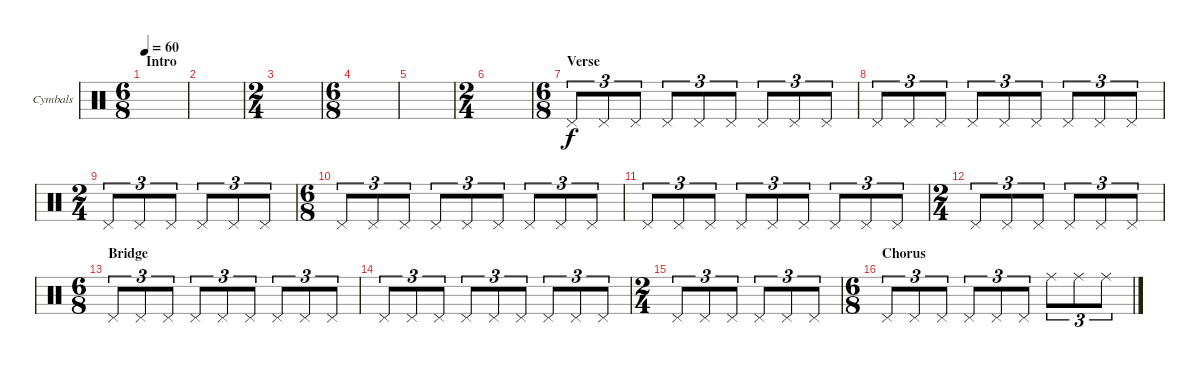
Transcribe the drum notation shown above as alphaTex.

\defaultSystemsLayout 4
\bracketExtendMode groupsimilarinstruments
\firstSystemTrackNameOrientation horizontal
\otherSystemsTrackNameOrientation horizontal
\track ("Cymbals" "Cymbals") {instrument percussion}
\staff {score}
\articulation defaults
\ts (6 8)
\section ("" "Intro")
\tempo 60
\clef neutral
\scale
0.391473
\ks c
|
\scale
0.217054 |
\ts (2 4)
\scale
0.391473 |
\ts (6 8)
\scale
0.391473 |
\scale
0.217054 |
\ts (2 4)
\scale
0.391473 |
\ts (6 8)
\section ("" "Verse")
\scale
0.391473 "Pedal Hi-Hat (hit)".8{tu (3 2)} "Pedal Hi-Hat (hit)".8{tu (3 2)} "Pedal Hi-Hat (hit)".8{tu (3 2)} "Pedal Hi-Hat (hit)".8{tu (3 2)} "Pedal Hi-Hat (hit)".8{tu (3 2)} "Pedal Hi-Hat (hit)".8{tu (3 2)} "Pedal Hi-Hat (hit)".8{tu (3 2)} "Pedal Hi-Hat (hit)".8{tu (3 2)} "Pedal Hi-Hat (hit)".8{tu (3 2)} |
\scale
0.217054 "Pedal Hi-Hat (hit)".8{tu (3 2)} "Pedal Hi-Hat (hit)".8{tu (3 2)} "Pedal Hi-Hat (hit)".8{tu (3 2)} "Pedal Hi-Hat (hit)".8{tu (3 2)} "Pedal Hi-Hat (hit)".8{tu (3 2)} "Pedal Hi-Hat (hit)".8{tu (3 2)} "Pedal Hi-Hat (hit)".8{tu (3 2)} "Pedal Hi-Hat (hit)".8{tu (3 2)} "Pedal Hi-Hat (hit)".8{tu (3 2)} |
\ts (2 4)
\scale
0.391473 "Pedal Hi-Hat (hit)".8{tu (3 2)} "Pedal Hi-Hat (hit)".8{tu (3 2)} "Pedal Hi-Hat (hit)".8{tu (3 2)} "Pedal Hi-Hat (hit)".8{tu (3 2)} "Pedal Hi-Hat (hit)".8{tu (3 2)} "Pedal Hi-Hat (hit)".8{tu (3 2)} |
\ts (6 8)
\scale
0.391473 "Pedal Hi-Hat (hit)".8{tu (3 2)} "Pedal Hi-Hat (hit)".8{tu (3 2)} "Pedal Hi-Hat (hit)".8{tu (3 2)} "Pedal Hi-Hat (hit)".8{tu (3 2)} "Pedal Hi-Hat (hit)".8{tu (3 2)} "Pedal Hi-Hat (hit)".8{tu (3 2)} "Pedal Hi-Hat (hit)".8{tu (3 2)} "Pedal Hi-Hat (hit)".8{tu (3 2)} "Pedal Hi-Hat (hit)".8{tu (3 2)} |
\scale
0.217054 "Pedal Hi-Hat (hit)".8{tu (3 2)} "Pedal Hi-Hat (hit)".8{tu (3 2)} "Pedal Hi-Hat (hit)".8{tu (3 2)} "Pedal Hi-Hat (hit)".8{tu (3 2)} "Pedal Hi-Hat (hit)".8{tu (3 2)} "Pedal Hi-Hat (hit)".8{tu (3 2)} "Pedal Hi-Hat (hit)".8{tu (3 2)} "Pedal Hi-Hat (hit)".8{tu (3 2)} "Pedal Hi-Hat (hit)".8{tu (3 2)} |
\ts (2 4)
\scale
0.391473 "Pedal Hi-Hat (hit)".8{tu (3 2)} "Pedal Hi-Hat (hit)".8{tu (3 2)} "Pedal Hi-Hat (hit)".8{tu (3 2)} "Pedal Hi-Hat (hit)".8{tu (3 2)} "Pedal Hi-Hat (hit)".8{tu (3 2)} "Pedal Hi-Hat (hit)".8{tu (3 2)} |
\ts (6 8)
\section ("" "Bridge")
\scale
0.391473 "Pedal Hi-Hat (hit)".8{tu (3 2)} "Pedal Hi-Hat (hit)".8{tu (3 2)} "Pedal Hi-Hat (hit)".8{tu (3 2)} "Pedal Hi-Hat (hit)".8{tu (3 2)} "Pedal Hi-Hat (hit)".8{tu (3 2)} "Pedal Hi-Hat (hit)".8{tu (3 2)} "Pedal Hi-Hat (hit)".8{tu (3 2)} "Pedal Hi-Hat (hit)".8{tu (3 2)} "Pedal Hi-Hat (hit)".8{tu (3 2)} |
\scale
0.217054 "Pedal Hi-Hat (hit)".8{tu (3 2)} "Pedal Hi-Hat (hit)".8{tu (3 2)} "Pedal Hi-Hat (hit)".8{tu (3 2)} "Pedal Hi-Hat (hit)".8{tu (3 2)} "Pedal Hi-Hat (hit)".8{tu (3 2)} "Pedal Hi-Hat (hit)".8{tu (3 2)} "Pedal Hi-Hat (hit)".8{tu (3 2)} "Pedal Hi-Hat (hit)".8{tu (3 2)} "Pedal Hi-Hat (hit)".8{tu (3 2)} |
\ts (2 4)
\scale
0.391473 "Pedal Hi-Hat (hit)".8{tu (3 2)} "Pedal Hi-Hat (hit)".8{tu (3 2)} "Pedal Hi-Hat (hit)".8{tu (3 2)} "Pedal Hi-Hat (hit)".8{tu (3 2)} "Pedal Hi-Hat (hit)".8{tu (3 2)} "Pedal Hi-Hat (hit)".8{tu (3 2)} |
\ts (6 8)
\section ("" "Chorus")
\scale
0.474178 "Pedal Hi-Hat (hit)".8{tu (3 2)} "Pedal Hi-Hat (hit)".8{tu (3 2)} "Pedal Hi-Hat (hit)".8{tu (3 2)} "Pedal Hi-Hat (hit)".8{tu (3 2)} "Pedal Hi-Hat (hit)".8{tu (3 2)} "Pedal Hi-Hat (hit)".8{tu (3 2)} "Ride (middle)".8{tu (3 2)} "Ride (middle)".8{tu (3 2)} "Ride (middle)".8{tu (3 2)}
